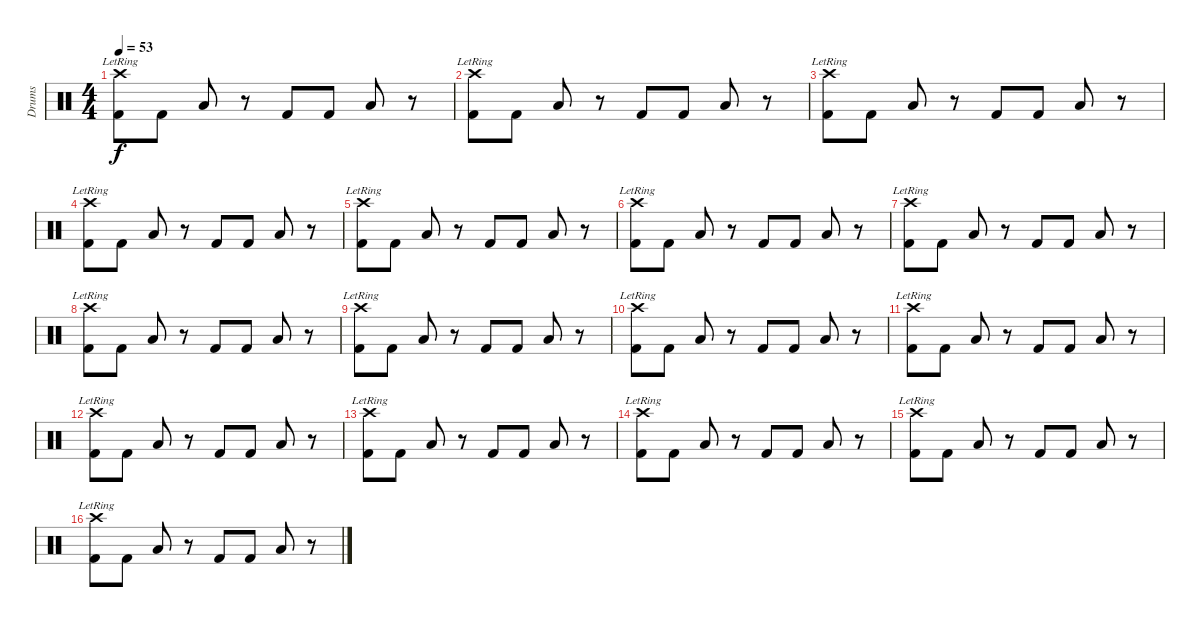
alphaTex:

\track ("Drums" "Drums") {instrument percussion}
\staff {score}
\articulation defaults
\ts (4 4)
\tempo 53
\clef neutral
\ks c
("Crash high (hit)"{lr} "Kick (hit) 2").8{dy f volume 16} "Kick (hit) 2".8{volume 16} "Low Floor Tom (hit)".8{volume 16} r.8 "Kick (hit) 2".8{volume 16} "Kick (hit) 2".8{volume 16} "Low Floor Tom (hit)".8{volume 16} r.8 |
("Crash high (hit)"{lr} "Kick (hit) 2").8{volume 16} "Kick (hit) 2".8{volume 16} "Low Floor Tom (hit)".8{volume 16} r.8 "Kick (hit) 2".8{volume 16} "Kick (hit) 2".8{volume 16} "Low Floor Tom (hit)".8{volume 16} r.8 |
("Crash high (hit)"{lr} "Kick (hit) 2").8{volume 16} "Kick (hit) 2".8{volume 16} "Low Floor Tom (hit)".8{volume 16} r.8 "Kick (hit) 2".8{volume 16} "Kick (hit) 2".8{volume 16} "Low Floor Tom (hit)".8{volume 16} r.8 |
("Crash high (hit)"{lr} "Kick (hit) 2").8{volume 16} "Kick (hit) 2".8{volume 16} "Low Floor Tom (hit)".8{volume 16} r.8 "Kick (hit) 2".8{volume 16} "Kick (hit) 2".8{volume 16} "Low Floor Tom (hit)".8{volume 16} r.8 |
("Crash high (hit)"{lr} "Kick (hit) 2").8{volume 16} "Kick (hit) 2".8{volume 16} "Low Floor Tom (hit)".8{volume 16} r.8 "Kick (hit) 2".8{volume 16} "Kick (hit) 2".8{volume 16} "Low Floor Tom (hit)".8{volume 16} r.8 |
("Crash high (hit)"{lr} "Kick (hit) 2").8{volume 16} "Kick (hit) 2".8{volume 16} "Low Floor Tom (hit)".8{volume 16} r.8 "Kick (hit) 2".8{volume 16} "Kick (hit) 2".8{volume 16} "Low Floor Tom (hit)".8{volume 16} r.8 |
("Crash high (hit)"{lr} "Kick (hit) 2").8{volume 16} "Kick (hit) 2".8{volume 16} "Low Floor Tom (hit)".8{volume 16} r.8 "Kick (hit) 2".8{volume 16} "Kick (hit) 2".8{volume 16} "Low Floor Tom (hit)".8{volume 16} r.8 |
("Crash high (hit)"{lr} "Kick (hit) 2").8{volume 16} "Kick (hit) 2".8{volume 16} "Low Floor Tom (hit)".8{volume 16} r.8 "Kick (hit) 2".8{volume 16} "Kick (hit) 2".8{volume 16} "Low Floor Tom (hit)".8{volume 16} r.8 |
("Crash high (hit)"{lr} "Kick (hit) 2").8{volume 16} "Kick (hit) 2".8{volume 16} "Low Floor Tom (hit)".8{volume 16} r.8 "Kick (hit) 2".8{volume 16} "Kick (hit) 2".8{volume 16} "Low Floor Tom (hit)".8{volume 16} r.8 |
("Crash high (hit)"{lr} "Kick (hit) 2").8{volume 16} "Kick (hit) 2".8{volume 16} "Low Floor Tom (hit)".8{volume 16} r.8 "Kick (hit) 2".8{volume 16} "Kick (hit) 2".8{volume 16} "Low Floor Tom (hit)".8{volume 16} r.8 |
("Crash high (hit)"{lr} "Kick (hit) 2").8{volume 16} "Kick (hit) 2".8{volume 16} "Low Floor Tom (hit)".8{volume 16} r.8 "Kick (hit) 2".8{volume 16} "Kick (hit) 2".8{volume 16} "Low Floor Tom (hit)".8{volume 16} r.8 |
("Crash high (hit)"{lr} "Kick (hit) 2").8{volume 16} "Kick (hit) 2".8{volume 16} "Low Floor Tom (hit)".8{volume 16} r.8 "Kick (hit) 2".8{volume 16} "Kick (hit) 2".8{volume 16} "Low Floor Tom (hit)".8{volume 16} r.8 |
("Crash high (hit)"{lr} "Kick (hit) 2").8{volume 16} "Kick (hit) 2".8{volume 16} "Low Floor Tom (hit)".8{volume 16} r.8 "Kick (hit) 2".8{volume 16} "Kick (hit) 2".8{volume 16} "Low Floor Tom (hit)".8{volume 16} r.8 |
("Crash high (hit)"{lr} "Kick (hit) 2").8{volume 16} "Kick (hit) 2".8{volume 16} "Low Floor Tom (hit)".8{volume 16} r.8 "Kick (hit) 2".8{volume 16} "Kick (hit) 2".8{volume 16} "Low Floor Tom (hit)".8{volume 16} r.8 |
("Crash high (hit)"{lr} "Kick (hit) 2").8{volume 16} "Kick (hit) 2".8{volume 16} "Low Floor Tom (hit)".8{volume 16} r.8 "Kick (hit) 2".8{volume 16} "Kick (hit) 2".8{volume 16} "Low Floor Tom (hit)".8{volume 16} r.8 |
("Crash high (hit)"{lr} "Kick (hit) 2").8{volume 16} "Kick (hit) 2".8{volume 16} "Low Floor Tom (hit)".8{volume 16} r.8 "Kick (hit) 2".8{volume 16} "Kick (hit) 2".8{volume 16} "Low Floor Tom (hit)".8{volume 16} r.8
